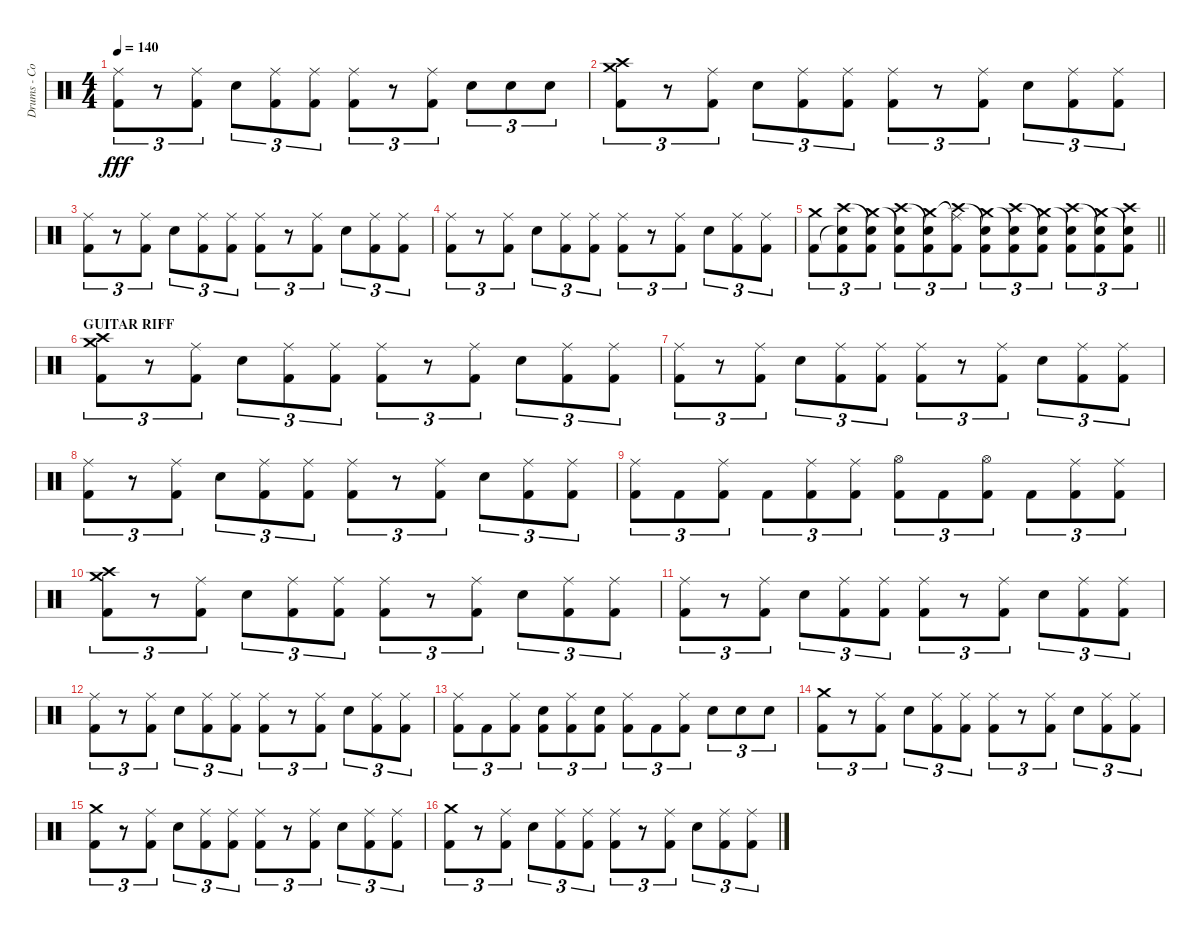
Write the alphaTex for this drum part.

\track ("Drums - Cozy Powell" "Drums - Co") {instrument percussion}
\staff {score}
\articulation defaults
\ts (4 4)
\tempo 140
\clef neutral
\ks c
("Ride (middle)" "Kick (hit) 2").8{tu (3 2) dy fff} r.8{tu (3 2)} ("Ride (middle)" "Kick (hit) 2").8{tu (3 2)} "Snare (hit) 2".8{tu (3 2)} ("Ride (middle)" "Kick (hit) 2").8{tu (3 2)} ("Ride (middle)" "Kick (hit) 2").8{tu (3 2)} ("Ride (middle)" "Kick (hit) 2").8{tu (3 2)} r.8{tu (3 2)} ("Ride (middle)" "Kick (hit) 2").8{tu (3 2)} "Snare (hit) 2".8{tu (3 2)} "Snare (hit) 2".8{tu (3 2)} "Snare (hit) 2".8{tu (3 2)} |
("Crash high (hit)" "Crash medium (hit)" "Kick (hit) 2").8{tu (3 2)} r.8{tu (3 2)} ("Ride (middle)" "Kick (hit) 2").8{tu (3 2)} "Snare (hit) 2".8{tu (3 2)} ("Ride (middle)" "Kick (hit) 2").8{tu (3 2)} ("Ride (middle)" "Kick (hit) 2").8{tu (3 2)} ("Ride (middle)" "Kick (hit) 2").8{tu (3 2)} r.8{tu (3 2)} ("Ride (middle)" "Kick (hit) 2").8{tu (3 2)} "Snare (hit) 2".8{tu (3 2)} ("Ride (middle)" "Kick (hit) 2").8{tu (3 2)} ("Ride (middle)" "Kick (hit) 2").8{tu (3 2)} |
("Ride (middle)" "Kick (hit) 2").8{tu (3 2)} r.8{tu (3 2)} ("Ride (middle)" "Kick (hit) 2").8{tu (3 2)} "Snare (hit) 2".8{tu (3 2)} ("Ride (middle)" "Kick (hit) 2").8{tu (3 2)} ("Ride (middle)" "Kick (hit) 2").8{tu (3 2)} ("Ride (middle)" "Kick (hit) 2").8{tu (3 2)} r.8{tu (3 2)} ("Ride (middle)" "Kick (hit) 2").8{tu (3 2)} "Snare (hit) 2".8{tu (3 2)} ("Ride (middle)" "Kick (hit) 2").8{tu (3 2)} ("Ride (middle)" "Kick (hit) 2").8{tu (3 2)} |
("Ride (middle)" "Kick (hit) 2").8{tu (3 2)} r.8{tu (3 2)} ("Ride (middle)" "Kick (hit) 2").8{tu (3 2)} "Snare (hit) 2".8{tu (3 2)} ("Ride (middle)" "Kick (hit) 2").8{tu (3 2)} ("Ride (middle)" "Kick (hit) 2").8{tu (3 2)} ("Ride (middle)" "Kick (hit) 2").8{tu (3 2)} r.8{tu (3 2)} ("Ride (middle)" "Kick (hit) 2").8{tu (3 2)} "Snare (hit) 2".8{tu (3 2)} ("Ride (middle)" "Kick (hit) 2").8{tu (3 2)} ("Ride (middle)" "Kick (hit) 2").8{tu (3 2)} |
\barLineRight lightlight
("Crash medium (hit)" "Kick (hit) 2").8{tu (3 2)} ("Crash high (hit)" "Snare (hit)"{t} "Kick (hit) 2").8{tu (3 2)} ("Snare (hit)"{t} "Crash medium (hit)" "Kick (hit) 2").8{tu (3 2)} ("Crash high (hit)" "Snare (hit)"{t} "Kick (hit) 2").8{tu (3 2)} ("Snare (hit)"{t} "Crash medium (hit)" "Kick (hit) 2").8{tu (3 2)} ("Crash high (hit)" "Ride (middle)"{t} "Kick (hit) 2").8{tu (3 2)} ("Snare (hit)"{t} "Crash medium (hit)" "Kick (hit) 2").8{tu (3 2)} ("Crash high (hit)" "Snare (hit)"{t} "Kick (hit) 2").8{tu (3 2)} ("Snare (hit)"{t} "Crash medium (hit)" "Kick (hit) 2").8{tu (3 2)} ("Crash high (hit)" "Snare (hit)"{t} "Kick (hit) 2").8{tu (3 2)} ("Snare (hit)"{t} "Crash medium (hit)" "Kick (hit) 2").8{tu (3 2)} ("Crash high (hit)" "Snare (hit)"{t} "Kick (hit) 2").8{tu (3 2)} |
\section ("" "GUITAR RIFF")
("Crash high (hit)" "Crash medium (hit)" "Kick (hit) 2").8{tu (3 2)} r.8{tu (3 2)} ("Ride (middle)" "Kick (hit) 2").8{tu (3 2)} "Snare (hit) 2".8{tu (3 2)} ("Ride (middle)" "Kick (hit) 2").8{tu (3 2)} ("Ride (middle)" "Kick (hit) 2").8{tu (3 2)} ("Ride (middle)" "Kick (hit) 2").8{tu (3 2)} r.8{tu (3 2)} ("Ride (middle)" "Kick (hit) 2").8{tu (3 2)} "Snare (hit) 2".8{tu (3 2)} ("Ride (middle)" "Kick (hit) 2").8{tu (3 2)} ("Ride (middle)" "Kick (hit) 2").8{tu (3 2)} |
("Ride (middle)" "Kick (hit) 2").8{tu (3 2)} r.8{tu (3 2)} ("Ride (middle)" "Kick (hit) 2").8{tu (3 2)} "Snare (hit) 2".8{tu (3 2)} ("Ride (middle)" "Kick (hit) 2").8{tu (3 2)} ("Ride (middle)" "Kick (hit) 2").8{tu (3 2)} ("Ride (middle)" "Kick (hit) 2").8{tu (3 2)} r.8{tu (3 2)} ("Ride (middle)" "Kick (hit) 2").8{tu (3 2)} "Snare (hit) 2".8{tu (3 2)} ("Ride (middle)" "Kick (hit) 2").8{tu (3 2)} ("Ride (middle)" "Kick (hit) 2").8{tu (3 2)} |
("Ride (middle)" "Kick (hit) 2").8{tu (3 2)} r.8{tu (3 2)} ("Ride (middle)" "Kick (hit) 2").8{tu (3 2)} "Snare (hit) 2".8{tu (3 2)} ("Ride (middle)" "Kick (hit) 2").8{tu (3 2)} ("Ride (middle)" "Kick (hit) 2").8{tu (3 2)} ("Ride (middle)" "Kick (hit) 2").8{tu (3 2)} r.8{tu (3 2)} ("Ride (middle)" "Kick (hit) 2").8{tu (3 2)} "Snare (hit) 2".8{tu (3 2)} ("Ride (middle)" "Kick (hit) 2").8{tu (3 2)} ("Ride (middle)" "Kick (hit) 2").8{tu (3 2)} |
("Ride (middle)" "Kick (hit) 2").8{tu (3 2)} "Kick (hit) 2".8{tu (3 2)} ("Ride (middle)" "Kick (hit) 2").8{tu (3 2)} "Kick (hit) 2".8{tu (3 2)} ("Ride (middle)" "Kick (hit) 2").8{tu (3 2)} ("Ride (middle)" "Kick (hit) 2").8{tu (3 2)} ("Hi-Hat (open)" "Kick (hit) 2").8{tu (3 2)} "Kick (hit) 2".8{tu (3 2)} ("Hi-Hat (open)" "Kick (hit) 2").8{tu (3 2)} "Kick (hit) 2".8{tu (3 2)} ("Ride (middle)" "Kick (hit) 2").8{tu (3 2)} ("Ride (middle)" "Kick (hit) 2").8{tu (3 2)} |
("Crash high (hit)" "Crash medium (hit)" "Kick (hit) 2").8{tu (3 2)} r.8{tu (3 2)} ("Ride (middle)" "Kick (hit) 2").8{tu (3 2)} "Snare (hit) 2".8{tu (3 2)} ("Ride (middle)" "Kick (hit) 2").8{tu (3 2)} ("Ride (middle)" "Kick (hit) 2").8{tu (3 2)} ("Ride (middle)" "Kick (hit) 2").8{tu (3 2)} r.8{tu (3 2)} ("Ride (middle)" "Kick (hit) 2").8{tu (3 2)} "Snare (hit) 2".8{tu (3 2)} ("Ride (middle)" "Kick (hit) 2").8{tu (3 2)} ("Ride (middle)" "Kick (hit) 2").8{tu (3 2)} |
("Ride (middle)" "Kick (hit) 2").8{tu (3 2)} r.8{tu (3 2)} ("Ride (middle)" "Kick (hit) 2").8{tu (3 2)} "Snare (hit) 2".8{tu (3 2)} ("Ride (middle)" "Kick (hit) 2").8{tu (3 2)} ("Ride (middle)" "Kick (hit) 2").8{tu (3 2)} ("Ride (middle)" "Kick (hit) 2").8{tu (3 2)} r.8{tu (3 2)} ("Ride (middle)" "Kick (hit) 2").8{tu (3 2)} "Snare (hit) 2".8{tu (3 2)} ("Ride (middle)" "Kick (hit) 2").8{tu (3 2)} ("Ride (middle)" "Kick (hit) 2").8{tu (3 2)} |
("Ride (middle)" "Kick (hit) 2").8{tu (3 2)} r.8{tu (3 2)} ("Ride (middle)" "Kick (hit) 2").8{tu (3 2)} "Snare (hit) 2".8{tu (3 2)} ("Ride (middle)" "Kick (hit) 2").8{tu (3 2)} ("Ride (middle)" "Kick (hit) 2").8{tu (3 2)} ("Ride (middle)" "Kick (hit) 2").8{tu (3 2)} r.8{tu (3 2)} ("Ride (middle)" "Kick (hit) 2").8{tu (3 2)} "Snare (hit) 2".8{tu (3 2)} ("Ride (middle)" "Kick (hit) 2").8{tu (3 2)} ("Ride (middle)" "Kick (hit) 2").8{tu (3 2)} |
("Ride (middle)" "Kick (hit) 2").8{tu (3 2)} "Kick (hit) 2".8{tu (3 2)} ("Ride (middle)" "Kick (hit) 2").8{tu (3 2)} ("Snare (hit) 2" "Kick (hit) 2").8{tu (3 2)} ("Ride (middle)" "Kick (hit) 2").8{tu (3 2)} ("Snare (hit) 2" "Kick (hit) 2").8{tu (3 2)} ("Ride (middle)" "Kick (hit) 2").8{tu (3 2)} "Kick (hit) 2".8{tu (3 2)} ("Ride (middle)" "Kick (hit) 2").8{tu (3 2)} "Snare (hit) 2".8{tu (3 2)} "Snare (hit) 2".8{tu (3 2)} "Snare (hit) 2".8{tu (3 2)} |
("Crash medium (hit)" "Kick (hit) 2").8{tu (3 2)} r.8{tu (3 2)} ("Ride (middle)" "Kick (hit) 2").8{tu (3 2)} "Snare (hit) 2".8{tu (3 2)} ("Ride (middle)" "Kick (hit) 2").8{tu (3 2)} ("Ride (middle)" "Kick (hit) 2").8{tu (3 2)} ("Ride (middle)" "Kick (hit) 2").8{tu (3 2)} r.8{tu (3 2)} ("Ride (middle)" "Kick (hit) 2").8{tu (3 2)} "Snare (hit) 2".8{tu (3 2)} ("Ride (middle)" "Kick (hit) 2").8{tu (3 2)} ("Ride (middle)" "Kick (hit) 2").8{tu (3 2)} |
("Crash medium (hit)" "Kick (hit) 2").8{tu (3 2)} r.8{tu (3 2)} ("Ride (middle)" "Kick (hit) 2").8{tu (3 2)} "Snare (hit) 2".8{tu (3 2)} ("Ride (middle)" "Kick (hit) 2").8{tu (3 2)} ("Ride (middle)" "Kick (hit) 2").8{tu (3 2)} ("Ride (middle)" "Kick (hit) 2").8{tu (3 2)} r.8{tu (3 2)} ("Ride (middle)" "Kick (hit) 2").8{tu (3 2)} "Snare (hit) 2".8{tu (3 2)} ("Ride (middle)" "Kick (hit) 2").8{tu (3 2)} ("Ride (middle)" "Kick (hit) 2").8{tu (3 2)} |
("Crash medium (hit)" "Kick (hit) 2").8{tu (3 2)} r.8{tu (3 2)} ("Ride (middle)" "Kick (hit) 2").8{tu (3 2)} "Snare (hit) 2".8{tu (3 2)} ("Ride (middle)" "Kick (hit) 2").8{tu (3 2)} ("Ride (middle)" "Kick (hit) 2").8{tu (3 2)} ("Ride (middle)" "Kick (hit) 2").8{tu (3 2)} r.8{tu (3 2)} ("Ride (middle)" "Kick (hit) 2").8{tu (3 2)} "Snare (hit) 2".8{tu (3 2)} ("Ride (middle)" "Kick (hit) 2").8{tu (3 2)} ("Ride (middle)" "Kick (hit) 2").8{tu (3 2)}
